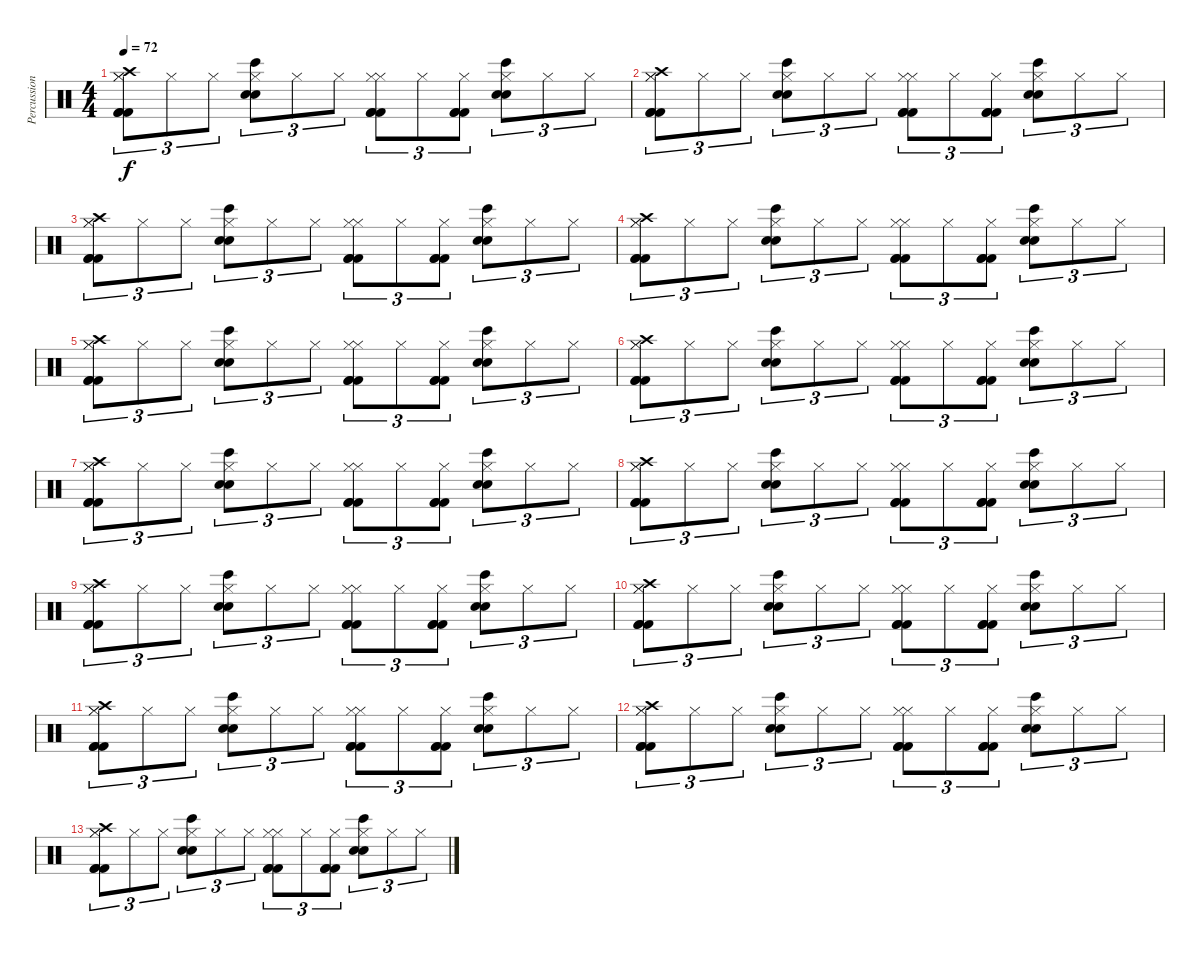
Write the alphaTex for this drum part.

\track ("Percussions" "Percussion") {instrument percussion}
\staff {score}
\articulation defaults
\ts (4 4)
\tempo 72
\clef neutral
\ks c
("Hi-Hat (closed)" "Hi-Hat (closed)" "Kick (hit) 2" "Kick (hit) 2" "Kick (hit) 2" "Crash high (hit)").8{tu (3 2) dy f} "Hi-Hat (closed)".8{tu (3 2)} "Hi-Hat (closed)".8{tu (3 2)} ("Hi-Hat (closed)" "Bongo High (hit)" "Snare (hit) 2" "Snare (hit) 2").8{tu (3 2)} "Hi-Hat (closed)".8{tu (3 2)} "Hi-Hat (closed)".8{tu (3 2)} ("Hi-Hat (closed)" "Hi-Hat (closed)" "Kick (hit) 2" "Kick (hit) 2" "Kick (hit) 2").8{tu (3 2)} "Hi-Hat (closed)".8{tu (3 2)} ("Hi-Hat (closed)" "Kick (hit) 2" "Kick (hit) 2" "Kick (hit) 2").8{tu (3 2)} ("Hi-Hat (closed)" "Bongo High (hit)" "Snare (hit) 2" "Snare (hit) 2").8{tu (3 2)} "Hi-Hat (closed)".8{tu (3 2)} "Hi-Hat (closed)".8{tu (3 2)} |
("Hi-Hat (closed)" "Hi-Hat (closed)" "Kick (hit) 2" "Kick (hit) 2" "Kick (hit) 2" "Crash high (hit)").8{tu (3 2)} "Hi-Hat (closed)".8{tu (3 2)} "Hi-Hat (closed)".8{tu (3 2)} ("Hi-Hat (closed)" "Bongo High (hit)" "Snare (hit) 2" "Snare (hit) 2").8{tu (3 2)} "Hi-Hat (closed)".8{tu (3 2)} "Hi-Hat (closed)".8{tu (3 2)} ("Hi-Hat (closed)" "Hi-Hat (closed)" "Kick (hit) 2" "Kick (hit) 2" "Kick (hit) 2").8{tu (3 2)} "Hi-Hat (closed)".8{tu (3 2)} ("Hi-Hat (closed)" "Kick (hit) 2" "Kick (hit) 2" "Kick (hit) 2").8{tu (3 2)} ("Hi-Hat (closed)" "Bongo High (hit)" "Snare (hit) 2" "Snare (hit) 2").8{tu (3 2)} "Hi-Hat (closed)".8{tu (3 2)} "Hi-Hat (closed)".8{tu (3 2)} |
("Hi-Hat (closed)" "Hi-Hat (closed)" "Kick (hit) 2" "Kick (hit) 2" "Kick (hit) 2" "Crash high (hit)").8{tu (3 2)} "Hi-Hat (closed)".8{tu (3 2)} "Hi-Hat (closed)".8{tu (3 2)} ("Hi-Hat (closed)" "Bongo High (hit)" "Snare (hit) 2" "Snare (hit) 2").8{tu (3 2)} "Hi-Hat (closed)".8{tu (3 2)} "Hi-Hat (closed)".8{tu (3 2)} ("Hi-Hat (closed)" "Hi-Hat (closed)" "Kick (hit) 2" "Kick (hit) 2" "Kick (hit) 2").8{tu (3 2)} "Hi-Hat (closed)".8{tu (3 2)} ("Hi-Hat (closed)" "Kick (hit) 2" "Kick (hit) 2" "Kick (hit) 2").8{tu (3 2)} ("Hi-Hat (closed)" "Bongo High (hit)" "Snare (hit) 2" "Snare (hit) 2").8{tu (3 2)} "Hi-Hat (closed)".8{tu (3 2)} "Hi-Hat (closed)".8{tu (3 2)} |
("Hi-Hat (closed)" "Hi-Hat (closed)" "Kick (hit) 2" "Kick (hit) 2" "Kick (hit) 2" "Crash high (hit)").8{tu (3 2)} "Hi-Hat (closed)".8{tu (3 2)} "Hi-Hat (closed)".8{tu (3 2)} ("Hi-Hat (closed)" "Bongo High (hit)" "Snare (hit) 2" "Snare (hit) 2").8{tu (3 2)} "Hi-Hat (closed)".8{tu (3 2)} "Hi-Hat (closed)".8{tu (3 2)} ("Hi-Hat (closed)" "Hi-Hat (closed)" "Kick (hit) 2" "Kick (hit) 2" "Kick (hit) 2").8{tu (3 2)} "Hi-Hat (closed)".8{tu (3 2)} ("Hi-Hat (closed)" "Kick (hit) 2" "Kick (hit) 2" "Kick (hit) 2").8{tu (3 2)} ("Hi-Hat (closed)" "Bongo High (hit)" "Snare (hit) 2" "Snare (hit) 2").8{tu (3 2)} "Hi-Hat (closed)".8{tu (3 2)} "Hi-Hat (closed)".8{tu (3 2)} |
("Hi-Hat (closed)" "Hi-Hat (closed)" "Kick (hit) 2" "Kick (hit) 2" "Kick (hit) 2" "Crash high (hit)").8{tu (3 2)} "Hi-Hat (closed)".8{tu (3 2)} "Hi-Hat (closed)".8{tu (3 2)} ("Hi-Hat (closed)" "Bongo High (hit)" "Snare (hit) 2" "Snare (hit) 2").8{tu (3 2)} "Hi-Hat (closed)".8{tu (3 2)} "Hi-Hat (closed)".8{tu (3 2)} ("Hi-Hat (closed)" "Hi-Hat (closed)" "Kick (hit) 2" "Kick (hit) 2" "Kick (hit) 2").8{tu (3 2)} "Hi-Hat (closed)".8{tu (3 2)} ("Hi-Hat (closed)" "Kick (hit) 2" "Kick (hit) 2" "Kick (hit) 2").8{tu (3 2)} ("Hi-Hat (closed)" "Bongo High (hit)" "Snare (hit) 2" "Snare (hit) 2").8{tu (3 2)} "Hi-Hat (closed)".8{tu (3 2)} "Hi-Hat (closed)".8{tu (3 2)} |
("Hi-Hat (closed)" "Hi-Hat (closed)" "Kick (hit) 2" "Kick (hit) 2" "Kick (hit) 2" "Crash high (hit)").8{tu (3 2)} "Hi-Hat (closed)".8{tu (3 2)} "Hi-Hat (closed)".8{tu (3 2)} ("Hi-Hat (closed)" "Bongo High (hit)" "Snare (hit) 2" "Snare (hit) 2").8{tu (3 2)} "Hi-Hat (closed)".8{tu (3 2)} "Hi-Hat (closed)".8{tu (3 2)} ("Hi-Hat (closed)" "Hi-Hat (closed)" "Kick (hit) 2" "Kick (hit) 2" "Kick (hit) 2").8{tu (3 2)} "Hi-Hat (closed)".8{tu (3 2)} ("Hi-Hat (closed)" "Kick (hit) 2" "Kick (hit) 2" "Kick (hit) 2").8{tu (3 2)} ("Hi-Hat (closed)" "Bongo High (hit)" "Snare (hit) 2" "Snare (hit) 2").8{tu (3 2)} "Hi-Hat (closed)".8{tu (3 2)} "Hi-Hat (closed)".8{tu (3 2)} |
("Hi-Hat (closed)" "Hi-Hat (closed)" "Kick (hit) 2" "Kick (hit) 2" "Kick (hit) 2" "Crash high (hit)").8{tu (3 2)} "Hi-Hat (closed)".8{tu (3 2)} "Hi-Hat (closed)".8{tu (3 2)} ("Hi-Hat (closed)" "Bongo High (hit)" "Snare (hit) 2" "Snare (hit) 2").8{tu (3 2)} "Hi-Hat (closed)".8{tu (3 2)} "Hi-Hat (closed)".8{tu (3 2)} ("Hi-Hat (closed)" "Hi-Hat (closed)" "Kick (hit) 2" "Kick (hit) 2" "Kick (hit) 2").8{tu (3 2)} "Hi-Hat (closed)".8{tu (3 2)} ("Hi-Hat (closed)" "Kick (hit) 2" "Kick (hit) 2" "Kick (hit) 2").8{tu (3 2)} ("Hi-Hat (closed)" "Bongo High (hit)" "Snare (hit) 2" "Snare (hit) 2").8{tu (3 2)} "Hi-Hat (closed)".8{tu (3 2)} "Hi-Hat (closed)".8{tu (3 2)} |
("Hi-Hat (closed)" "Hi-Hat (closed)" "Kick (hit) 2" "Kick (hit) 2" "Kick (hit) 2" "Crash high (hit)").8{tu (3 2)} "Hi-Hat (closed)".8{tu (3 2)} "Hi-Hat (closed)".8{tu (3 2)} ("Hi-Hat (closed)" "Bongo High (hit)" "Snare (hit) 2" "Snare (hit) 2").8{tu (3 2)} "Hi-Hat (closed)".8{tu (3 2)} "Hi-Hat (closed)".8{tu (3 2)} ("Hi-Hat (closed)" "Hi-Hat (closed)" "Kick (hit) 2" "Kick (hit) 2" "Kick (hit) 2").8{tu (3 2)} "Hi-Hat (closed)".8{tu (3 2)} ("Hi-Hat (closed)" "Kick (hit) 2" "Kick (hit) 2" "Kick (hit) 2").8{tu (3 2)} ("Hi-Hat (closed)" "Bongo High (hit)" "Snare (hit) 2" "Snare (hit) 2").8{tu (3 2)} "Hi-Hat (closed)".8{tu (3 2)} "Hi-Hat (closed)".8{tu (3 2)} |
("Hi-Hat (closed)" "Hi-Hat (closed)" "Kick (hit) 2" "Kick (hit) 2" "Kick (hit) 2" "Crash high (hit)").8{tu (3 2)} "Hi-Hat (closed)".8{tu (3 2)} "Hi-Hat (closed)".8{tu (3 2)} ("Hi-Hat (closed)" "Bongo High (hit)" "Snare (hit) 2" "Snare (hit) 2").8{tu (3 2)} "Hi-Hat (closed)".8{tu (3 2)} "Hi-Hat (closed)".8{tu (3 2)} ("Hi-Hat (closed)" "Hi-Hat (closed)" "Kick (hit) 2" "Kick (hit) 2" "Kick (hit) 2").8{tu (3 2)} "Hi-Hat (closed)".8{tu (3 2)} ("Hi-Hat (closed)" "Kick (hit) 2" "Kick (hit) 2" "Kick (hit) 2").8{tu (3 2)} ("Hi-Hat (closed)" "Bongo High (hit)" "Snare (hit) 2" "Snare (hit) 2").8{tu (3 2)} "Hi-Hat (closed)".8{tu (3 2)} "Hi-Hat (closed)".8{tu (3 2)} |
("Hi-Hat (closed)" "Hi-Hat (closed)" "Kick (hit) 2" "Kick (hit) 2" "Kick (hit) 2" "Crash high (hit)").8{tu (3 2)} "Hi-Hat (closed)".8{tu (3 2)} "Hi-Hat (closed)".8{tu (3 2)} ("Hi-Hat (closed)" "Bongo High (hit)" "Snare (hit) 2" "Snare (hit) 2").8{tu (3 2)} "Hi-Hat (closed)".8{tu (3 2)} "Hi-Hat (closed)".8{tu (3 2)} ("Hi-Hat (closed)" "Hi-Hat (closed)" "Kick (hit) 2" "Kick (hit) 2" "Kick (hit) 2").8{tu (3 2)} "Hi-Hat (closed)".8{tu (3 2)} ("Hi-Hat (closed)" "Kick (hit) 2" "Kick (hit) 2" "Kick (hit) 2").8{tu (3 2)} ("Hi-Hat (closed)" "Bongo High (hit)" "Snare (hit) 2" "Snare (hit) 2").8{tu (3 2)} "Hi-Hat (closed)".8{tu (3 2)} "Hi-Hat (closed)".8{tu (3 2)} |
("Hi-Hat (closed)" "Hi-Hat (closed)" "Kick (hit) 2" "Kick (hit) 2" "Kick (hit) 2" "Crash high (hit)").8{tu (3 2)} "Hi-Hat (closed)".8{tu (3 2)} "Hi-Hat (closed)".8{tu (3 2)} ("Hi-Hat (closed)" "Bongo High (hit)" "Snare (hit) 2" "Snare (hit) 2").8{tu (3 2)} "Hi-Hat (closed)".8{tu (3 2)} "Hi-Hat (closed)".8{tu (3 2)} ("Hi-Hat (closed)" "Hi-Hat (closed)" "Kick (hit) 2" "Kick (hit) 2" "Kick (hit) 2").8{tu (3 2)} "Hi-Hat (closed)".8{tu (3 2)} ("Hi-Hat (closed)" "Kick (hit) 2" "Kick (hit) 2" "Kick (hit) 2").8{tu (3 2)} ("Hi-Hat (closed)" "Bongo High (hit)" "Snare (hit) 2" "Snare (hit) 2").8{tu (3 2)} "Hi-Hat (closed)".8{tu (3 2)} "Hi-Hat (closed)".8{tu (3 2)} |
("Hi-Hat (closed)" "Hi-Hat (closed)" "Kick (hit) 2" "Kick (hit) 2" "Kick (hit) 2" "Crash high (hit)").8{tu (3 2)} "Hi-Hat (closed)".8{tu (3 2)} "Hi-Hat (closed)".8{tu (3 2)} ("Hi-Hat (closed)" "Bongo High (hit)" "Snare (hit) 2" "Snare (hit) 2").8{tu (3 2)} "Hi-Hat (closed)".8{tu (3 2)} "Hi-Hat (closed)".8{tu (3 2)} ("Hi-Hat (closed)" "Hi-Hat (closed)" "Kick (hit) 2" "Kick (hit) 2" "Kick (hit) 2").8{tu (3 2)} "Hi-Hat (closed)".8{tu (3 2)} ("Hi-Hat (closed)" "Kick (hit) 2" "Kick (hit) 2" "Kick (hit) 2").8{tu (3 2)} ("Hi-Hat (closed)" "Bongo High (hit)" "Snare (hit) 2" "Snare (hit) 2").8{tu (3 2)} "Hi-Hat (closed)".8{tu (3 2)} "Hi-Hat (closed)".8{tu (3 2)} |
("Hi-Hat (closed)" "Hi-Hat (closed)" "Kick (hit) 2" "Kick (hit) 2" "Kick (hit) 2" "Crash high (hit)").8{tu (3 2)} "Hi-Hat (closed)".8{tu (3 2)} "Hi-Hat (closed)".8{tu (3 2)} ("Hi-Hat (closed)" "Bongo High (hit)" "Snare (hit) 2" "Snare (hit) 2").8{tu (3 2)} "Hi-Hat (closed)".8{tu (3 2)} "Hi-Hat (closed)".8{tu (3 2)} ("Hi-Hat (closed)" "Hi-Hat (closed)" "Kick (hit) 2" "Kick (hit) 2" "Kick (hit) 2").8{tu (3 2)} "Hi-Hat (closed)".8{tu (3 2)} ("Hi-Hat (closed)" "Kick (hit) 2" "Kick (hit) 2" "Kick (hit) 2").8{tu (3 2)} ("Hi-Hat (closed)" "Bongo High (hit)" "Snare (hit) 2" "Snare (hit) 2").8{tu (3 2)} "Hi-Hat (closed)".8{tu (3 2)} "Hi-Hat (closed)".8{tu (3 2)}
